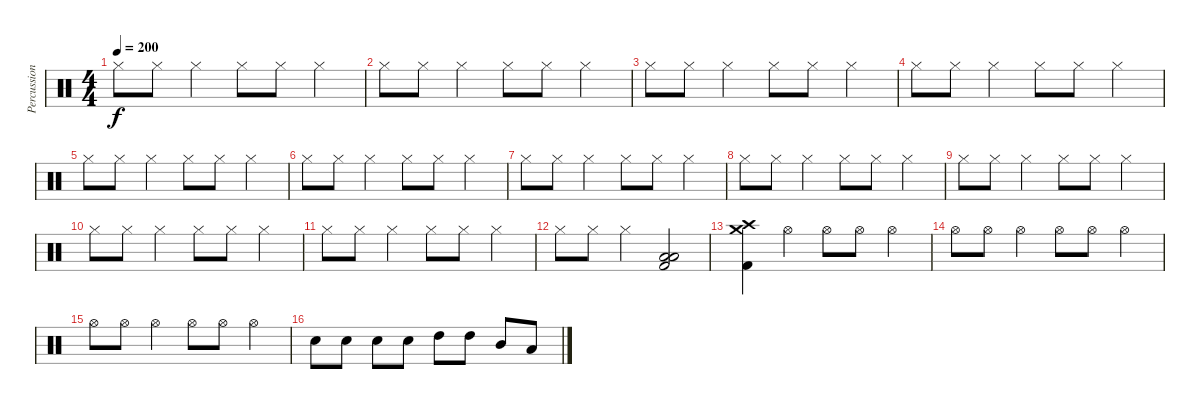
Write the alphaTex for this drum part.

\track ("Percussioni" "Percussion") {instrument percussion}
\staff {score}
\articulation defaults
\ts (4 4)
\tempo 200
\clef neutral
\ks c "Hi-Hat (closed)".8{dy f volume 13} "Hi-Hat (closed)".8 "Hi-Hat (closed)".4 "Hi-Hat (closed)".8 "Hi-Hat (closed)".8 "Hi-Hat (closed)".4
|
"Hi-Hat (closed)".8 "Hi-Hat (closed)".8 "Hi-Hat (closed)".4 "Hi-Hat (closed)".8 "Hi-Hat (closed)".8 "Hi-Hat (closed)".4 |
"Hi-Hat (closed)".8 "Hi-Hat (closed)".8 "Hi-Hat (closed)".4 "Hi-Hat (closed)".8 "Hi-Hat (closed)".8 "Hi-Hat (closed)".4 |
"Hi-Hat (closed)".8 "Hi-Hat (closed)".8 "Hi-Hat (closed)".4 "Hi-Hat (closed)".8 "Hi-Hat (closed)".8 "Hi-Hat (closed)".4 |
"Hi-Hat (closed)".8 "Hi-Hat (closed)".8 "Hi-Hat (closed)".4 "Hi-Hat (closed)".8 "Hi-Hat (closed)".8 "Hi-Hat (closed)".4 |
"Hi-Hat (closed)".8 "Hi-Hat (closed)".8 "Hi-Hat (closed)".4 "Hi-Hat (closed)".8 "Hi-Hat (closed)".8 "Hi-Hat (closed)".4 |
"Hi-Hat (closed)".8 "Hi-Hat (closed)".8 "Hi-Hat (closed)".4 "Hi-Hat (closed)".8 "Hi-Hat (closed)".8 "Hi-Hat (closed)".4 |
"Hi-Hat (closed)".8 "Hi-Hat (closed)".8 "Hi-Hat (closed)".4 "Hi-Hat (closed)".8 "Hi-Hat (closed)".8 "Hi-Hat (closed)".4 |
"Hi-Hat (closed)".8 "Hi-Hat (closed)".8 "Hi-Hat (closed)".4 "Hi-Hat (closed)".8 "Hi-Hat (closed)".8 "Hi-Hat (closed)".4 |
"Hi-Hat (closed)".8 "Hi-Hat (closed)".8 "Hi-Hat (closed)".4 "Hi-Hat (closed)".8 "Hi-Hat (closed)".8 "Hi-Hat (closed)".4 |
"Hi-Hat (closed)".8 "Hi-Hat (closed)".8 "Hi-Hat (closed)".4 "Hi-Hat (closed)".8 "Hi-Hat (closed)".8 "Hi-Hat (closed)".4 |
"Hi-Hat (closed)".8 "Hi-Hat (closed)".8 "Hi-Hat (closed)".4 ("Low Tom (hit)" "Low Floor Tom (hit)" "Kick (hit) 2").2{volume 13} |
("Crash high (hit)" "Crash medium (hit)" "Kick (hit) 2").4 "Hi-Hat (open)".4 "Hi-Hat (open)".8 "Hi-Hat (open)".8 "Hi-Hat (open)".4 |
"Hi-Hat (open)".8 "Hi-Hat (open)".8 "Hi-Hat (open)".4 "Hi-Hat (open)".8 "Hi-Hat (open)".8 "Hi-Hat (open)".4 |
"Hi-Hat (open)".8 "Hi-Hat (open)".8 "Hi-Hat (open)".4 "Hi-Hat (open)".8 "Hi-Hat (open)".8 "Hi-Hat (open)".4 |
"Electric Snare (hit)".8 "Electric Snare (hit)".8 "Electric Snare (hit)".8 "Electric Snare (hit)".8 "High Tom (hit)".8 "High Tom (hit)".8 "Mid Tom (hit)".8 "Low Tom (hit)".8
